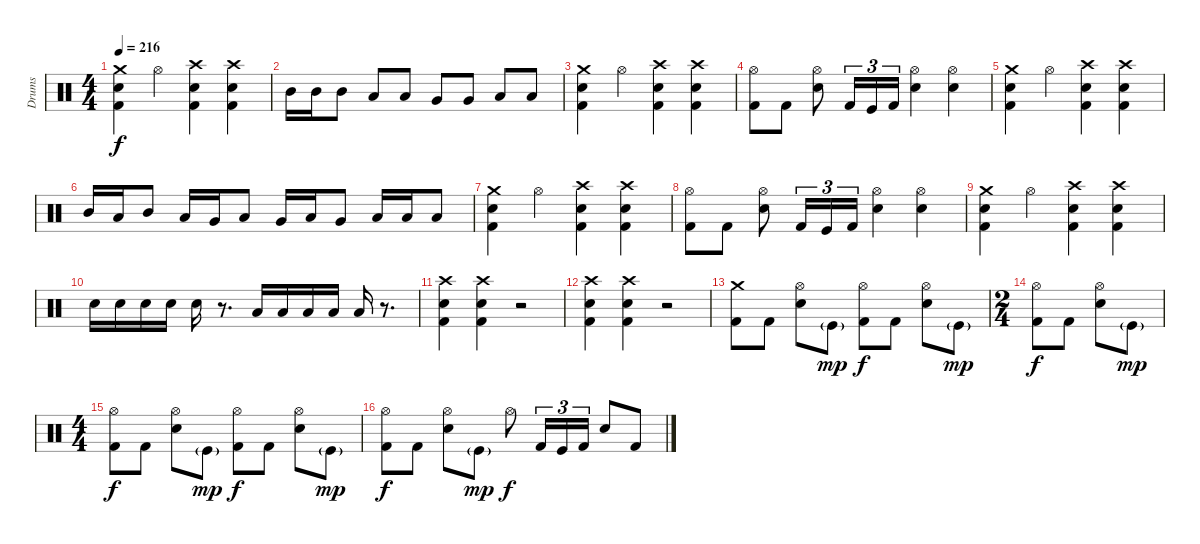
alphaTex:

\track ("Drums" "Drums") {instrument percussion}
\staff {score}
\articulation defaults
\ts (4 4)
\tempo 216
\clef neutral
\ks c
("Crash medium (hit)" "Snare (hit) 2" "Kick (hit) 2").4{dy f} "Hi-Hat (open)".4 ("Crash high (hit)" "Snare (hit) 2" "Kick (hit) 2").4 ("Crash high (hit)" "Snare (hit) 2" "Kick (hit) 2").4 |
"Mid Tom (hit)".16 "Mid Tom (hit)".16 "Mid Tom (hit)".8 "Low Tom (hit)".8 "Low Tom (hit)".8 "Very Low Tom (hit)".8 "Very Low Tom (hit)".8 "Low Floor Tom (hit)".8 "Low Floor Tom (hit)".8 |
("Crash medium (hit)" "Snare (hit) 2" "Kick (hit) 2").4 "Hi-Hat (open)".4 ("Crash high (hit)" "Snare (hit) 2" "Kick (hit) 2").4 ("Crash high (hit)" "Snare (hit) 2" "Kick (hit) 2").4 |
("Hi-Hat (open)" "Kick (hit) 2").8 "Kick (hit) 2".8 ("Hi-Hat (open)" "Snare (hit) 2").8 "Kick (hit) 2".16{tu (3 2)} "Kick (hit)".16{tu (3 2)} "Kick (hit) 2".16{tu (3 2)} ("Hi-Hat (open)" "Snare (hit) 2").4 ("Hi-Hat (open)" "Snare (hit) 2").4 |
("Crash medium (hit)" "Snare (hit) 2" "Kick (hit) 2").4 "Hi-Hat (open)".4 ("Crash high (hit)" "Snare (hit) 2" "Kick (hit) 2").4 ("Crash high (hit)" "Snare (hit) 2" "Kick (hit) 2").4 |
"Mid Tom (hit)".16 "Low Tom (hit)".16 "Mid Tom (hit)".8 "Low Tom (hit)".16 "Very Low Tom (hit)".16 "Low Tom (hit)".8 "Very Low Tom (hit)".16 "Low Floor Tom (hit)".16 "Very Low Tom (hit)".8 "Low Floor Tom (hit)".16 "Low Floor Tom (hit)".16 "Low Floor Tom (hit)".8 |
("Crash medium (hit)" "Snare (hit) 2" "Kick (hit) 2").4 "Hi-Hat (open)".4 ("Crash high (hit)" "Snare (hit) 2" "Kick (hit) 2").4 ("Crash high (hit)" "Snare (hit) 2" "Kick (hit) 2").4 |
("Hi-Hat (open)" "Kick (hit) 2").8 "Kick (hit) 2".8 ("Hi-Hat (open)" "Snare (hit) 2").8 "Kick (hit) 2".16{tu (3 2)} "Kick (hit)".16{tu (3 2)} "Kick (hit) 2".16{tu (3 2)} ("Hi-Hat (open)" "Snare (hit) 2").4 ("Hi-Hat (open)" "Snare (hit) 2").4 |
("Crash medium (hit)" "Snare (hit) 2" "Kick (hit) 2").4 "Hi-Hat (open)".4 ("Crash high (hit)" "Snare (hit) 2" "Kick (hit) 2").4 ("Crash high (hit)" "Snare (hit) 2" "Kick (hit) 2").4 |
"Snare (hit) 2".16 "Snare (hit) 2".16 "Snare (hit) 2".16 "Snare (hit) 2".16 "Snare (hit) 2".16 r.8{d} "Low Tom (hit)".16 "Low Tom (hit)".16 "Low Tom (hit)".16 "Low Tom (hit)".16 "Low Tom (hit)".16 r.8{d} |
("Crash high (hit)" "Snare (hit) 2" "Kick (hit) 2").4 ("Crash high (hit)" "Snare (hit) 2" "Kick (hit) 2").4 r.2 |
("Crash high (hit)" "Snare (hit) 2" "Kick (hit) 2").4 ("Crash high (hit)" "Snare (hit) 2" "Kick (hit) 2").4 r.2 |
("Crash medium (hit)" "Kick (hit) 2").8 "Kick (hit) 2".8 ("Hi-Hat (open)" "Snare (hit) 2").8 "Kick (hit)"{g}.8{dy mp} ("Hi-Hat (open)" "Kick (hit) 2").8{dy f} "Kick (hit) 2".8 ("Hi-Hat (open)" "Snare (hit) 2").8 "Kick (hit)"{g}.8{dy mp} |
\ts (2 4)
("Hi-Hat (open)" "Kick (hit) 2").8{dy f} "Kick (hit) 2".8 ("Hi-Hat (open)" "Snare (hit) 2").8 "Kick (hit)"{g}.8{dy mp} |
\ts (4 4)
("Hi-Hat (open)" "Kick (hit) 2").8{dy f} "Kick (hit) 2".8 ("Hi-Hat (open)" "Snare (hit) 2").8 "Kick (hit)"{g}.8{dy mp} ("Hi-Hat (open)" "Kick (hit) 2").8{dy f} "Kick (hit) 2".8 ("Hi-Hat (open)" "Snare (hit) 2").8 "Kick (hit)"{g}.8{dy mp} |
("Hi-Hat (open)" "Kick (hit) 2").8{dy f} "Kick (hit) 2".8 ("Hi-Hat (open)" "Snare (hit) 2").8 "Kick (hit)"{g}.8{dy mp} "Hi-Hat (open)".8{dy f} "Kick (hit) 2".16{tu (3 2)} "Kick (hit)".16{tu (3 2)} "Kick (hit) 2".16{tu (3 2)} "Snare (hit) 2".8 "Kick (hit) 2".8
